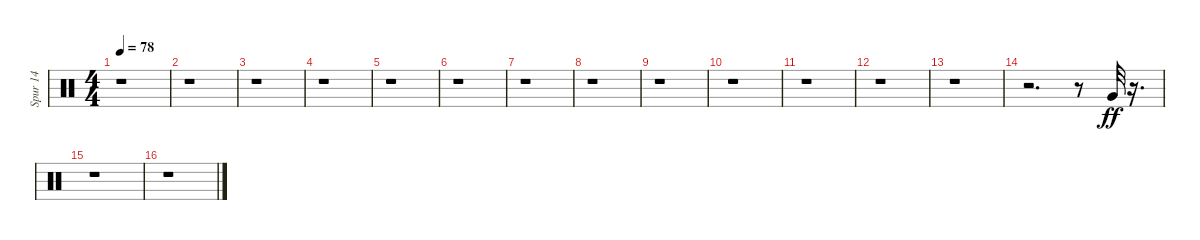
\track ("Spur 14" "Spur 14") {instrument percussion}
\staff {score}
\articulation defaults
\ts (4 4)
\tempo 78
\clef neutral
\ks c
r.1{dy f} |
r.1 |
r.1 |
r.1 |
r.1 |
r.1 |
r.1 |
r.1 |
r.1 |
r.1 |
r.1 |
r.1 |
r.1 |
r.2{d} r.8 "Very Low Tom (hit)".32{dy ff} r.16{d} |
r.1 |
r.1
